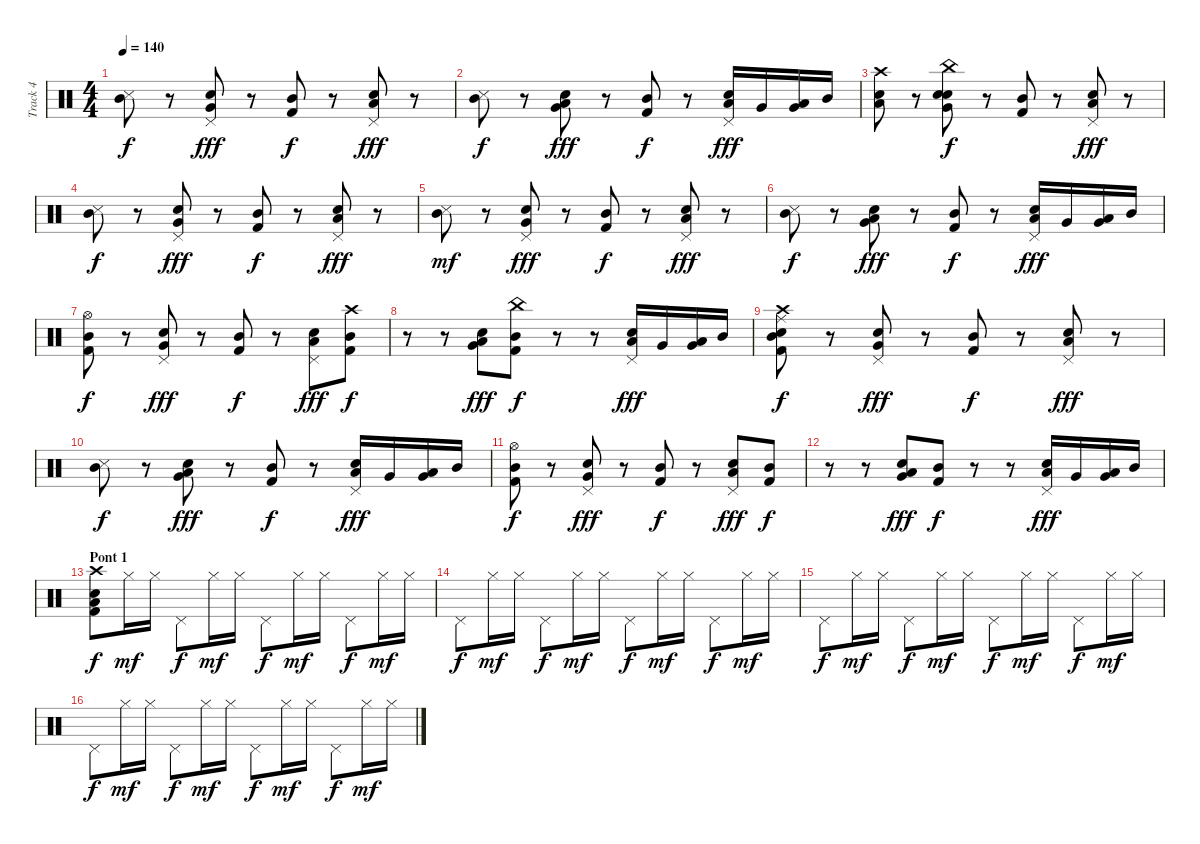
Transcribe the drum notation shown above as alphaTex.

\track ("Track 4" "Track 4") {instrument percussion}
\staff {score}
\articulation defaults
\ts (4 4)
\tempo 140
\clef neutral
\ks c
("Mid Tom (hit)" "Snare (side stick) 3").8{dy f} r.8 ("Pedal Hi-Hat (hit)" "Snare (hit) 2" "Very Low Tom (hit)").8{dy fff} r.8 ("Mid Tom (hit)" "Kick (hit) 2").8{dy f} r.8 ("Low Tom (hit)" "Electric Snare (hit)" "Pedal Hi-Hat (hit)").8{dy fff} r.8 |
("Mid Tom (hit)" "Snare (side stick) 3").8{dy f} r.8 ("Snare (hit) 2" "Low Tom (hit)" "Very Low Tom (hit)").8{dy fff} r.8 ("Mid Tom (hit)" "Kick (hit) 2").8{dy f} r.8 ("Low Tom (hit)" "Pedal Hi-Hat (hit)" "Electric Snare (hit)").16{dy fff} "Very Low Tom (hit)".16 ("Very Low Tom (hit)" "Low Tom (hit)").16 "Mid Tom (hit)".16 |
("Electric Snare (hit)" "Low Tom (hit)" "Crash high (hit)").8 r.8 ("Electric Snare (hit)" "Snare (hit) 2" "Very Low Tom (hit)" "China (hit)").8{dy f} r.8 ("Mid Tom (hit)" "Kick (hit) 2").8 r.8 ("Low Tom (hit)" "Electric Snare (hit)" "Pedal Hi-Hat (hit)").8{dy fff} r.8 |
("Mid Tom (hit)" "Snare (side stick) 3").8{dy f} r.8 ("Pedal Hi-Hat (hit)" "Snare (hit) 2" "Very Low Tom (hit)").8{dy fff} r.8 ("Mid Tom (hit)" "Kick (hit) 2").8{dy f} r.8 ("Low Tom (hit)" "Electric Snare (hit)" "Pedal Hi-Hat (hit)").8{dy fff} r.8 |
("Mid Tom (hit)" "Snare (side stick) 3").8{dy mf} r.8 ("Pedal Hi-Hat (hit)" "Snare (hit) 2" "Very Low Tom (hit)").8{dy fff} r.8 ("Mid Tom (hit)" "Kick (hit) 2").8{dy f} r.8 ("Low Tom (hit)" "Electric Snare (hit)" "Pedal Hi-Hat (hit)").8{dy fff} r.8 |
("Mid Tom (hit)" "Snare (side stick) 3").8{dy f} r.8 ("Snare (hit) 2" "Low Tom (hit)" "Very Low Tom (hit)").8{dy fff} r.8 ("Mid Tom (hit)" "Kick (hit) 2").8{dy f} r.8 ("Low Tom (hit)" "Pedal Hi-Hat (hit)" "Electric Snare (hit)").16{dy fff} "Very Low Tom (hit)".16 ("Very Low Tom (hit)" "Low Tom (hit)").16 "Mid Tom (hit)".16 |
("Mid Tom (hit)" "Kick (hit) 2" "Hi-Hat (open)").8{dy f} r.8 ("Pedal Hi-Hat (hit)" "Snare (hit) 2" "Very Low Tom (hit)").8{dy fff} r.8 ("Mid Tom (hit)" "Kick (hit) 2").8{dy f} r.8 ("Low Tom (hit)" "Electric Snare (hit)" "Pedal Hi-Hat (hit)").8{dy fff} ("Mid Tom (hit)" "Kick (hit) 2" "Crash high (hit)").8{dy f} |
r.8 r.8 ("Snare (hit) 2" "Low Tom (hit)" "Very Low Tom (hit)").8{dy fff} ("Mid Tom (hit)" "Kick (hit) 2" "China (hit)").8{dy f} r.8 r.8 ("Low Tom (hit)" "Pedal Hi-Hat (hit)" "Electric Snare (hit)").16{dy fff} "Very Low Tom (hit)".16 ("Very Low Tom (hit)" "Low Tom (hit)").16 "Mid Tom (hit)".16 |
("Mid Tom (hit)" "Kick (hit) 2" "Snare (hit) 2" "Ride (middle)" "Crash high (hit)").8{dy f} r.8 ("Pedal Hi-Hat (hit)" "Snare (hit) 2" "Very Low Tom (hit)").8{dy fff} r.8 ("Mid Tom (hit)" "Kick (hit) 2").8{dy f} r.8 ("Low Tom (hit)" "Electric Snare (hit)" "Pedal Hi-Hat (hit)").8{dy fff} r.8 |
("Mid Tom (hit)" "Snare (side stick) 3").8{dy f} r.8 ("Snare (hit) 2" "Low Tom (hit)" "Very Low Tom (hit)").8{dy fff} r.8 ("Mid Tom (hit)" "Kick (hit) 2").8{dy f} r.8 ("Low Tom (hit)" "Pedal Hi-Hat (hit)" "Electric Snare (hit)").16{dy fff} "Very Low Tom (hit)".16 ("Very Low Tom (hit)" "Low Tom (hit)").16 "Mid Tom (hit)".16 |
("Mid Tom (hit)" "Kick (hit) 2" "Hi-Hat (open)").8{dy f} r.8 ("Pedal Hi-Hat (hit)" "Snare (hit) 2" "Very Low Tom (hit)").8{dy fff} r.8 ("Mid Tom (hit)" "Kick (hit) 2").8{dy f} r.8 ("Low Tom (hit)" "Electric Snare (hit)" "Pedal Hi-Hat (hit)").8{dy fff} ("Mid Tom (hit)" "Kick (hit) 2").8{dy f} |
r.8 r.8 ("Snare (hit) 2" "Low Tom (hit)" "Very Low Tom (hit)").8{dy fff} ("Mid Tom (hit)" "Kick (hit) 2").8{dy f} r.8 r.8 ("Low Tom (hit)" "Pedal Hi-Hat (hit)" "Electric Snare (hit)").16{dy fff} "Very Low Tom (hit)".16 ("Very Low Tom (hit)" "Low Tom (hit)").16 "Mid Tom (hit)".16 |
\section ("" "Pont 1")
("Low Tom (hit)" "Kick (hit) 2" "Snare (hit) 2" "Crash high (hit)").8{dy f} "Hi-Hat (closed)".16{dy mf} "Hi-Hat (closed)".16 "Pedal Hi-Hat (hit)".8{dy f} "Hi-Hat (closed)".16{dy mf} "Hi-Hat (closed)".16 "Pedal Hi-Hat (hit)".8{dy f} "Hi-Hat (closed)".16{dy mf} "Hi-Hat (closed)".16 "Pedal Hi-Hat (hit)".8{dy f} "Hi-Hat (closed)".16{dy mf} "Hi-Hat (closed)".16 |
"Pedal Hi-Hat (hit)".8{dy f} "Hi-Hat (closed)".16{dy mf} "Hi-Hat (closed)".16 "Pedal Hi-Hat (hit)".8{dy f} "Hi-Hat (closed)".16{dy mf} "Hi-Hat (closed)".16 "Pedal Hi-Hat (hit)".8{dy f} "Hi-Hat (closed)".16{dy mf} "Hi-Hat (closed)".16 "Pedal Hi-Hat (hit)".8{dy f} "Hi-Hat (closed)".16{dy mf} "Hi-Hat (closed)".16 |
"Pedal Hi-Hat (hit)".8{dy f} "Hi-Hat (closed)".16{dy mf} "Hi-Hat (closed)".16 "Pedal Hi-Hat (hit)".8{dy f} "Hi-Hat (closed)".16{dy mf} "Hi-Hat (closed)".16 "Pedal Hi-Hat (hit)".8{dy f} "Hi-Hat (closed)".16{dy mf} "Hi-Hat (closed)".16 "Pedal Hi-Hat (hit)".8{dy f} "Hi-Hat (closed)".16{dy mf} "Hi-Hat (closed)".16 |
"Pedal Hi-Hat (hit)".8{dy f} "Hi-Hat (closed)".16{dy mf} "Hi-Hat (closed)".16 "Pedal Hi-Hat (hit)".8{dy f} "Hi-Hat (closed)".16{dy mf} "Hi-Hat (closed)".16 "Pedal Hi-Hat (hit)".8{dy f} "Hi-Hat (closed)".16{dy mf} "Hi-Hat (closed)".16 "Pedal Hi-Hat (hit)".8{dy f} "Hi-Hat (closed)".16{dy mf} "Hi-Hat (closed)".16
